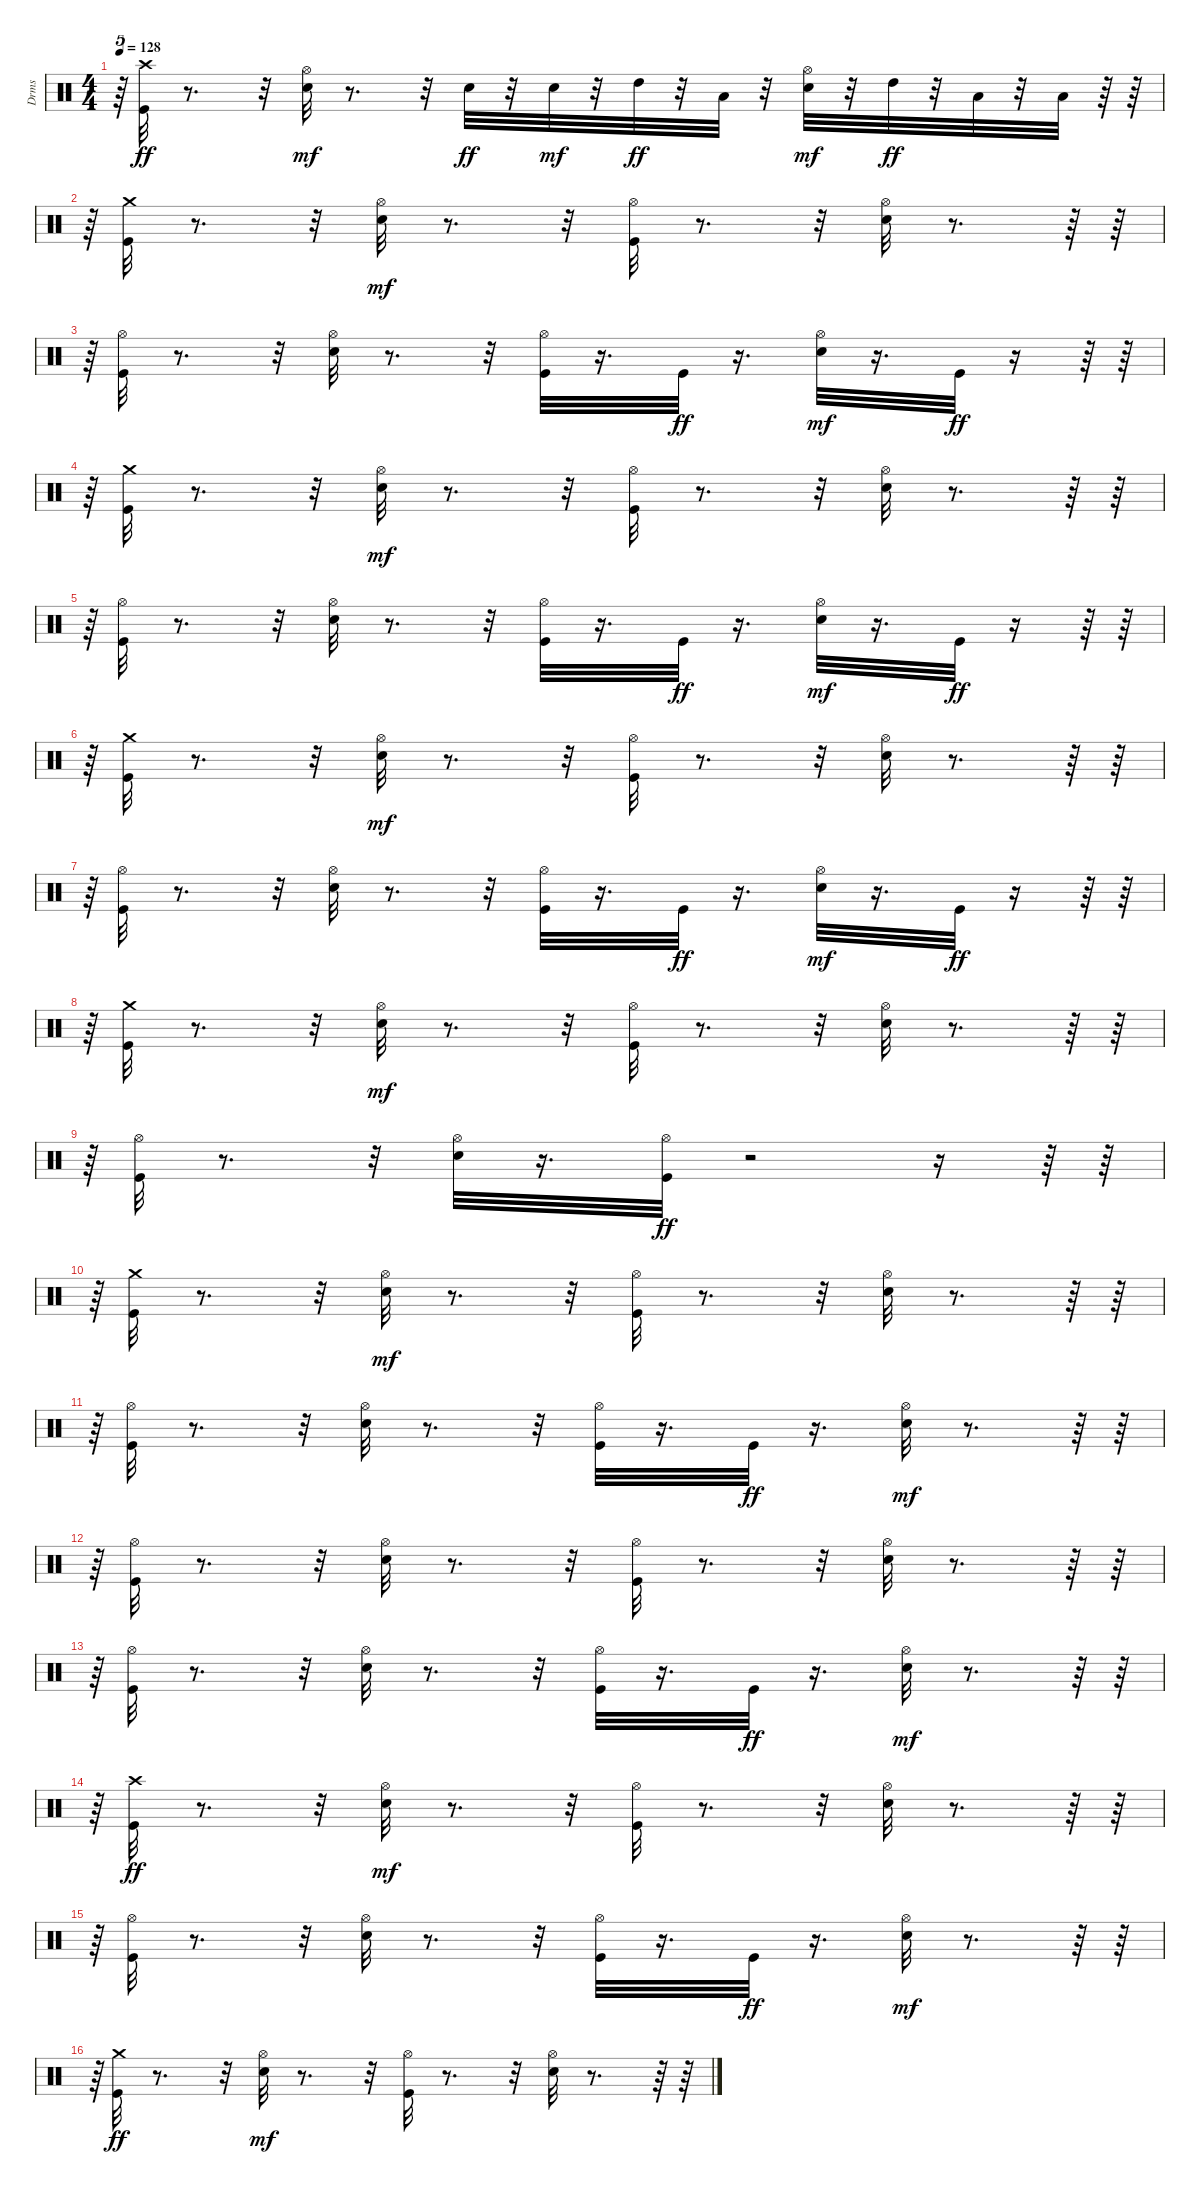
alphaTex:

\track ("Drms" "Drms") {instrument percussion}
\staff {score}
\articulation defaults
\ts (4 4)
\tempo 128
\clef neutral
\ks c
r.64{tu (5 4) dy ff} ("Kick (hit)" "Crash high (hit)").32 r.8{d} r.32 ("Snare (hit) 2" "Hi-Hat (open)").32{dy mf} r.8{d} r.32 "Snare (hit) 2".32{dy ff} r.32 "Snare (hit) 2".32{dy mf} r.32 "High Tom (hit)".32{dy ff} r.32 "Low Tom (hit)".32 r.32 ("Snare (hit) 2" "Hi-Hat (open)").32{dy mf} r.32 "High Tom (hit)".32{dy ff} r.32 "Low Tom (hit)".32 r.32 "Low Floor Tom (hit)".32 r.64 r.64 |
r.64{tu (5 4)} ("Kick (hit)" "Crash medium (hit)").32 r.8{d} r.32 ("Snare (hit) 2" "Hi-Hat (open)").32{dy mf} r.8{d} r.32 ("Kick (hit)" "Hi-Hat (open)").32 r.8{d} r.32 ("Snare (hit) 2" "Hi-Hat (open)").32 r.8{d} r.64 r.64 |
r.64{tu (5 4)} ("Kick (hit)" "Hi-Hat (open)").32 r.8{d} r.32 ("Snare (hit) 2" "Hi-Hat (open)").32 r.8{d} r.32 ("Kick (hit)" "Hi-Hat (open)").32 r.16{d} "Kick (hit)".32{dy ff} r.16{d} ("Snare (hit) 2" "Hi-Hat (open)").32{dy mf} r.16{d} "Kick (hit)".32{dy ff} r.16 r.64 r.64 |
r.64{tu (5 4)} ("Kick (hit)" "Crash medium (hit)").32 r.8{d} r.32 ("Snare (hit) 2" "Hi-Hat (open)").32{dy mf} r.8{d} r.32 ("Kick (hit)" "Hi-Hat (open)").32 r.8{d} r.32 ("Snare (hit) 2" "Hi-Hat (open)").32 r.8{d} r.64 r.64 |
r.64{tu (5 4)} ("Kick (hit)" "Hi-Hat (open)").32 r.8{d} r.32 ("Snare (hit) 2" "Hi-Hat (open)").32 r.8{d} r.32 ("Kick (hit)" "Hi-Hat (open)").32 r.16{d} "Kick (hit)".32{dy ff} r.16{d} ("Snare (hit) 2" "Hi-Hat (open)").32{dy mf} r.16{d} "Kick (hit)".32{dy ff} r.16 r.64 r.64 |
r.64{tu (5 4)} ("Kick (hit)" "Crash medium (hit)").32 r.8{d} r.32 ("Snare (hit) 2" "Hi-Hat (open)").32{dy mf} r.8{d} r.32 ("Kick (hit)" "Hi-Hat (open)").32 r.8{d} r.32 ("Snare (hit) 2" "Hi-Hat (open)").32 r.8{d} r.64 r.64 |
r.64{tu (5 4)} ("Kick (hit)" "Hi-Hat (open)").32 r.8{d} r.32 ("Snare (hit) 2" "Hi-Hat (open)").32 r.8{d} r.32 ("Kick (hit)" "Hi-Hat (open)").32 r.16{d} "Kick (hit)".32{dy ff} r.16{d} ("Snare (hit) 2" "Hi-Hat (open)").32{dy mf} r.16{d} "Kick (hit)".32{dy ff} r.16 r.64 r.64 |
r.64{tu (5 4)} ("Kick (hit)" "Crash medium (hit)").32 r.8{d} r.32 ("Snare (hit) 2" "Hi-Hat (open)").32{dy mf} r.8{d} r.32 ("Kick (hit)" "Hi-Hat (open)").32 r.8{d} r.32 ("Snare (hit) 2" "Hi-Hat (open)").32 r.8{d} r.64 r.64 |
r.64{tu (5 4)} ("Kick (hit)" "Hi-Hat (open)").32 r.8{d} r.32 ("Snare (hit) 2" "Hi-Hat (open)").32 r.16{d} ("Hi-Hat (open)" "Kick (hit)").32{dy ff} r.2 r.16 r.64 r.64 |
r.64{tu (5 4)} ("Kick (hit)" "Crash medium (hit)").32 r.8{d} r.32 ("Snare (hit) 2" "Hi-Hat (open)").32{dy mf} r.8{d} r.32 ("Kick (hit)" "Hi-Hat (open)").32 r.8{d} r.32 ("Snare (hit) 2" "Hi-Hat (open)").32 r.8{d} r.64 r.64 |
r.64{tu (5 4)} ("Kick (hit)" "Hi-Hat (open)").32 r.8{d} r.32 ("Snare (hit) 2" "Hi-Hat (open)").32 r.8{d} r.32 ("Kick (hit)" "Hi-Hat (open)").32 r.16{d} "Kick (hit)".32{dy ff} r.16{d} ("Snare (hit) 2" "Hi-Hat (open)").32{dy mf} r.8{d} r.64 r.64 |
r.64{tu (5 4)} ("Kick (hit)" "Hi-Hat (open)").32 r.8{d} r.32 ("Snare (hit) 2" "Hi-Hat (open)").32 r.8{d} r.32 ("Kick (hit)" "Hi-Hat (open)").32 r.8{d} r.32 ("Snare (hit) 2" "Hi-Hat (open)").32 r.8{d} r.64 r.64 |
r.64{tu (5 4)} ("Kick (hit)" "Hi-Hat (open)").32 r.8{d} r.32 ("Snare (hit) 2" "Hi-Hat (open)").32 r.8{d} r.32 ("Kick (hit)" "Hi-Hat (open)").32 r.16{d} "Kick (hit)".32{dy ff} r.16{d} ("Snare (hit) 2" "Hi-Hat (open)").32{dy mf} r.8{d} r.64 r.64 |
r.64{tu (5 4)} ("Kick (hit)" "Crash high (hit)").32{dy ff} r.8{d} r.32 ("Snare (hit) 2" "Hi-Hat (open)").32{dy mf} r.8{d} r.32 ("Kick (hit)" "Hi-Hat (open)").32 r.8{d} r.32 ("Snare (hit) 2" "Hi-Hat (open)").32 r.8{d} r.64 r.64 |
r.64{tu (5 4)} ("Kick (hit)" "Hi-Hat (open)").32 r.8{d} r.32 ("Snare (hit) 2" "Hi-Hat (open)").32 r.8{d} r.32 ("Kick (hit)" "Hi-Hat (open)").32 r.16{d} "Kick (hit)".32{dy ff} r.16{d} ("Snare (hit) 2" "Hi-Hat (open)").32{dy mf} r.8{d} r.64 r.64 |
r.64{tu (5 4)} ("Kick (hit)" "Crash medium (hit)").32{dy ff} r.8{d} r.32 ("Snare (hit) 2" "Hi-Hat (open)").32{dy mf} r.8{d} r.32 ("Kick (hit)" "Hi-Hat (open)").32 r.8{d} r.32 ("Snare (hit) 2" "Hi-Hat (open)").32 r.8{d} r.64 r.64
